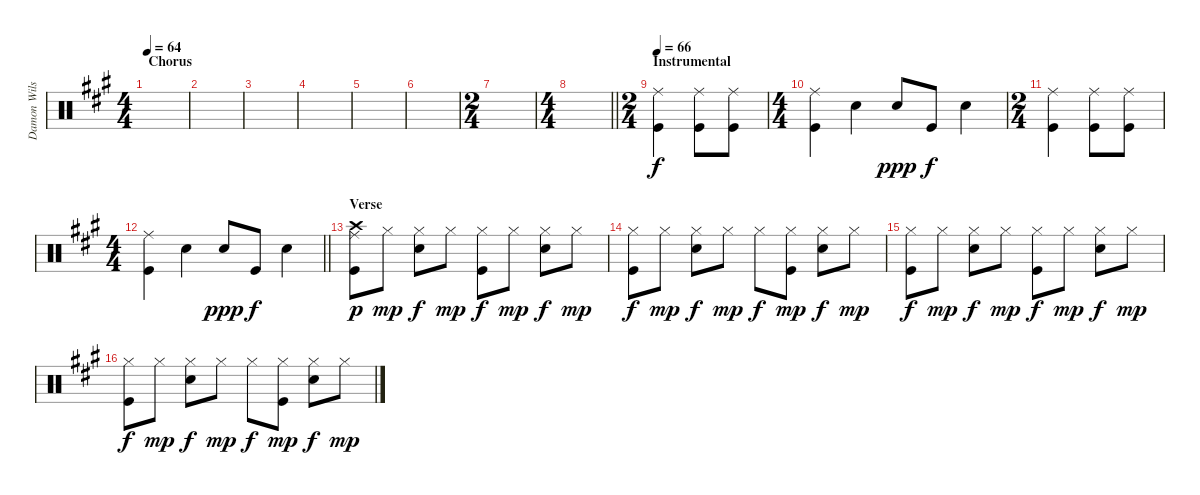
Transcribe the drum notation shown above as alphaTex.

\track ("Damon Wilson" "Damon Wils") {instrument percussion}
\staff {score}
\articulation defaults
\ts (4 4)
\section ("" "Chorus")
\tempo 64
\clef neutral
\ks f#minor
|
|
|
|
|
|
\ts (2 4)
|
\ts (4 4)
\barLineRight lightlight
|
\ts (2 4)
\section ("" "Instrumental")
\tempo 66
("Ride (middle)" "Kick (hit)").4 ("Ride (middle)" "Kick (hit)").8 ("Ride (middle)" "Kick (hit)").8 |
\ts (4 4)
("Ride (middle)" "Kick (hit)").4 "Electric Snare (hit)".4 "Electric Snare (hit)".8{dy ppp} "Kick (hit)".8{dy f} "Electric Snare (hit)".4 |
\ts (2 4)
("Ride (middle)" "Kick (hit)").4 ("Ride (middle)" "Kick (hit)").8 ("Ride (middle)" "Kick (hit)").8 |
\ts (4 4)
\barLineRight lightlight
("Ride (middle)" "Kick (hit)").4 "Electric Snare (hit)".4 "Electric Snare (hit)".8{dy ppp} "Kick (hit)".8{dy f} "Electric Snare (hit)".4 |
\section ("" "Verse")
("Ride (middle)" "Crash high (hit)" "Kick (hit)").8{dy p} "Hi-Hat (closed)".8{dy mp} ("Hi-Hat (closed)" "Electric Snare (hit)").8{dy f} "Hi-Hat (closed)".8{dy mp} ("Hi-Hat (closed)" "Kick (hit)").8{dy f} "Hi-Hat (closed)".8{dy mp} ("Hi-Hat (closed)" "Electric Snare (hit)").8{dy f} "Hi-Hat (closed)".8{dy mp} |
("Hi-Hat (closed)" "Kick (hit)").8{dy f} "Hi-Hat (closed)".8{dy mp} ("Hi-Hat (closed)" "Electric Snare (hit)").8{dy f} "Hi-Hat (closed)".8{dy mp} "Hi-Hat (closed)".8{dy f} ("Hi-Hat (closed)" "Kick (hit)").8{dy mp} ("Hi-Hat (closed)" "Electric Snare (hit)").8{dy f} "Hi-Hat (closed)".8{dy mp} |
("Hi-Hat (closed)" "Kick (hit)").8{dy f} "Hi-Hat (closed)".8{dy mp} ("Hi-Hat (closed)" "Electric Snare (hit)").8{dy f} "Hi-Hat (closed)".8{dy mp} ("Hi-Hat (closed)" "Kick (hit)").8{dy f} "Hi-Hat (closed)".8{dy mp} ("Hi-Hat (closed)" "Electric Snare (hit)").8{dy f} "Hi-Hat (closed)".8{dy mp} |
("Hi-Hat (closed)" "Kick (hit)").8{dy f} "Hi-Hat (closed)".8{dy mp} ("Hi-Hat (closed)" "Electric Snare (hit)").8{dy f} "Hi-Hat (closed)".8{dy mp} "Hi-Hat (closed)".8{dy f} ("Hi-Hat (closed)" "Kick (hit)").8{dy mp} ("Hi-Hat (closed)" "Electric Snare (hit)").8{dy f} "Hi-Hat (closed)".8{dy mp}
